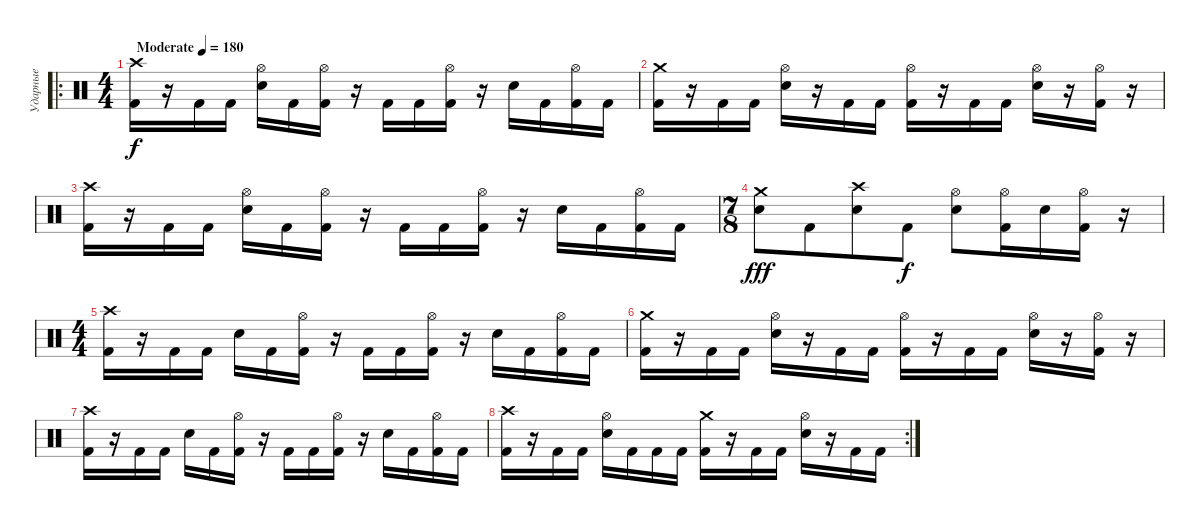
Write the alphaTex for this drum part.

\track ("Ударные" "Ударные") {instrument percussion}
\staff {score}
\articulation defaults
\ro
\ts (4 4)
\tempo (180 "Moderate")
\clef neutral
\ks c
("Crash high (hit)" "Kick (hit) 2").16{dy f} r.16 "Kick (hit) 2".16 "Kick (hit) 2".16 ("Hi-Hat (open)" "Electric Snare (hit)").16 "Kick (hit) 2".16 ("Hi-Hat (open)" "Kick (hit) 2").16 r.16 "Kick (hit) 2".16 "Kick (hit) 2".16 ("Hi-Hat (open)" "Kick (hit) 2").16 r.16 "Electric Snare (hit)".16 "Kick (hit) 2".16 ("Hi-Hat (open)" "Kick (hit) 2").16 "Kick (hit) 2".16 |
("Crash medium (hit)" "Kick (hit) 2").16 r.16 "Kick (hit) 2".16 "Kick (hit) 2".16 ("Hi-Hat (open)" "Electric Snare (hit)").16 r.16 "Kick (hit) 2".16 "Kick (hit) 2".16 ("Hi-Hat (open)" "Kick (hit) 2").16 r.16 "Kick (hit) 2".16 "Kick (hit) 2".16 ("Hi-Hat (open)" "Electric Snare (hit)").16 r.16 ("Hi-Hat (open)" "Kick (hit) 2").16 r.16 |
("Crash high (hit)" "Kick (hit) 2").16 r.16 "Kick (hit) 2".16 "Kick (hit) 2".16 ("Hi-Hat (open)" "Electric Snare (hit)").16 "Kick (hit) 2".16 ("Hi-Hat (open)" "Kick (hit) 2").16 r.16 "Kick (hit) 2".16 "Kick (hit) 2".16 ("Hi-Hat (open)" "Kick (hit) 2").16 r.16 "Electric Snare (hit)".16 "Kick (hit) 2".16 ("Hi-Hat (open)" "Kick (hit) 2").16 "Kick (hit) 2".16 |
\ts (7 8)
("Crash medium (hit)" "Electric Snare (hit)").8{dy fff} "Kick (hit) 2".8 ("Crash high (hit)" "Electric Snare (hit)").8 "Kick (hit) 2".8{dy f} ("Hi-Hat (open)" "Electric Snare (hit)").8 ("Hi-Hat (open)" "Kick (hit) 2").16 "Electric Snare (hit)".16 ("Hi-Hat (open)" "Kick (hit) 2").16 r.16 |
\ts (4 4)
("Crash high (hit)" "Kick (hit) 2").16 r.16 "Kick (hit) 2".16 "Kick (hit) 2".16 "Electric Snare (hit)".16 "Kick (hit) 2".16 ("Hi-Hat (open)" "Kick (hit) 2").16 r.16 "Kick (hit) 2".16 "Kick (hit) 2".16 ("Hi-Hat (open)" "Kick (hit) 2").16 r.16 "Electric Snare (hit)".16 "Kick (hit) 2".16 ("Hi-Hat (open)" "Kick (hit) 2").16 "Kick (hit) 2".16 |
("Crash medium (hit)" "Kick (hit) 2").16 r.16 "Kick (hit) 2".16 "Kick (hit) 2".16 ("Hi-Hat (open)" "Electric Snare (hit)").16 r.16 "Kick (hit) 2".16 "Kick (hit) 2".16 ("Hi-Hat (open)" "Kick (hit) 2").16 r.16 "Kick (hit) 2".16 "Kick (hit) 2".16 ("Hi-Hat (open)" "Electric Snare (hit)").16 r.16 ("Hi-Hat (open)" "Kick (hit) 2").16 r.16 |
("Crash high (hit)" "Kick (hit) 2").16 r.16 "Kick (hit) 2".16 "Kick (hit) 2".16 "Electric Snare (hit)".16 "Kick (hit) 2".16 ("Hi-Hat (open)" "Kick (hit) 2").16 r.16 "Kick (hit) 2".16 "Kick (hit) 2".16 ("Hi-Hat (open)" "Kick (hit) 2").16 r.16 "Electric Snare (hit)".16 "Kick (hit) 2".16 ("Hi-Hat (open)" "Kick (hit) 2").16 "Kick (hit) 2".16 |
\rc 2
("Crash high (hit)" "Kick (hit) 2").16 r.16 "Kick (hit) 2".16 "Kick (hit) 2".16 ("Hi-Hat (open)" "Electric Snare (hit)").16 "Kick (hit) 2".16 "Kick (hit) 2".16 "Kick (hit) 2".16 ("Crash medium (hit)" "Kick (hit) 2").16 r.16 "Kick (hit) 2".16 "Kick (hit) 2".16 ("Hi-Hat (open)" "Electric Snare (hit)").16 r.16 "Kick (hit) 2".16 "Kick (hit) 2".16
